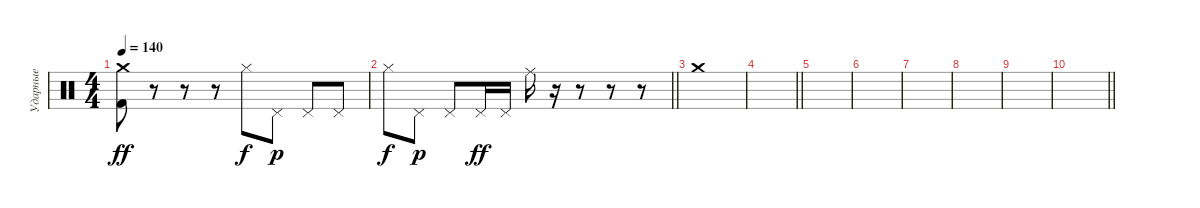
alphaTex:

\track ("Ударные" "Ударные") {instrument percussion}
\staff {score}
\articulation defaults
\ts (4 4)
\tempo 140
\clef neutral
\ks c
("Kick (hit) 2" "Crash medium (hit)").8{dy ff} r.8 r.8 r.8 "Hi-Hat (closed)".8{dy f} "Pedal Hi-Hat (hit)".8{dy p} "Pedal Hi-Hat (hit)".8 "Pedal Hi-Hat (hit)".8 |
\barLineRight lightlight "Hi-Hat (closed)".8{dy f} "Pedal Hi-Hat (hit)".8{dy p} "Pedal Hi-Hat (hit)".8 "Pedal Hi-Hat (hit)".16{dy ff} "Pedal Hi-Hat (hit)".16 "Ride (middle)".16
r.16 r.8 r.8 r.8 |
\section ("" "")
"Crash medium (hit)".1 |
\barLineRight lightlight
|
|
|
|
|
|
\barLineRight lightlight
